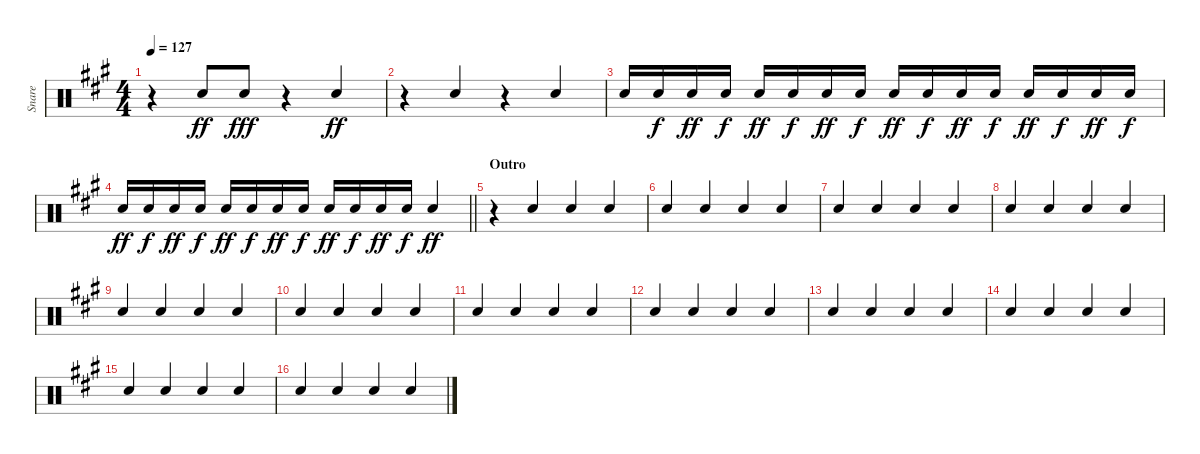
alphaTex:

\track ("Snare" "Snare") {instrument percussion}
\staff {score}
\articulation defaults
\ts (4 4)
\tempo 127
\clef neutral
\ks a
r.4{dy ff} "Electric Snare (hit)".8{volume 13 beam Up} "Electric Snare (hit)".8{dy fff beam Up} r.4 "Electric Snare (hit)".4{dy ff beam Up} |
r.4{beam merge} "Electric Snare (hit)".4{beam Up} r.4{beam merge} "Electric Snare (hit)".4{beam Up} |
"Electric Snare (hit)".16{beam Up} "Electric Snare (hit)".16{dy f beam Up} "Electric Snare (hit)".16{dy ff beam Up} "Electric Snare (hit)".16{dy f beam Up} "Electric Snare (hit)".16{dy ff beam Up} "Electric Snare (hit)".16{dy f beam Up} "Electric Snare (hit)".16{dy ff beam Up} "Electric Snare (hit)".16{dy f beam Up} "Electric Snare (hit)".16{dy ff beam Up} "Electric Snare (hit)".16{dy f beam Up} "Electric Snare (hit)".16{dy ff beam Up} "Electric Snare (hit)".16{dy f beam Up} "Electric Snare (hit)".16{dy ff beam Up} "Electric Snare (hit)".16{dy f beam Up} "Electric Snare (hit)".16{dy ff beam Up} "Electric Snare (hit)".16{dy f beam Up} |
\barLineRight lightlight "Electric Snare (hit)".16{dy ff beam Up} "Electric Snare (hit)".16{dy f beam Up} "Electric Snare (hit)".16{dy ff beam Up} "Electric Snare (hit)".16{dy f beam Up} "Electric Snare (hit)".16{dy ff beam Up} "Electric Snare (hit)".16{dy f beam Up} "Electric Snare (hit)".16{dy ff beam Up} "Electric Snare (hit)".16{dy f beam Up} "Electric Snare (hit)".16{dy ff beam Up} "Electric Snare (hit)".16{dy f beam Up} "Electric Snare (hit)".16{dy ff beam Up} "Electric Snare (hit)".16{dy f beam Up} "Electric Snare (hit)".4{dy ff beam Up}
|
\section ("" "Outro")
r.4 "Electric Snare (hit)".4{beam Up} "Electric Snare (hit)".4{beam Up} "Electric Snare (hit)".4{beam Up} |
"Electric Snare (hit)".4{beam Up} "Electric Snare (hit)".4{beam Up} "Electric Snare (hit)".4{beam Up} "Electric Snare (hit)".4{beam Up} |
"Electric Snare (hit)".4{beam Up} "Electric Snare (hit)".4{beam Up} "Electric Snare (hit)".4{beam Up} "Electric Snare (hit)".4{beam Up} |
"Electric Snare (hit)".4{beam Up} "Electric Snare (hit)".4{beam Up} "Electric Snare (hit)".4{beam Up} "Electric Snare (hit)".4{beam Up} |
"Electric Snare (hit)".4{beam Up} "Electric Snare (hit)".4{beam Up} "Electric Snare (hit)".4{beam Up} "Electric Snare (hit)".4{beam Up} |
"Electric Snare (hit)".4{beam Up} "Electric Snare (hit)".4{beam Up} "Electric Snare (hit)".4{beam Up} "Electric Snare (hit)".4{beam Up} |
"Electric Snare (hit)".4{beam Up} "Electric Snare (hit)".4{beam Up} "Electric Snare (hit)".4{beam Up} "Electric Snare (hit)".4{beam Up} |
"Electric Snare (hit)".4{beam Up} "Electric Snare (hit)".4{beam Up} "Electric Snare (hit)".4{beam Up} "Electric Snare (hit)".4{beam Up} |
"Electric Snare (hit)".4{beam Up} "Electric Snare (hit)".4{beam Up} "Electric Snare (hit)".4{beam Up} "Electric Snare (hit)".4{beam Up} |
"Electric Snare (hit)".4{beam Up} "Electric Snare (hit)".4{beam Up} "Electric Snare (hit)".4{beam Up} "Electric Snare (hit)".4{beam Up} |
"Electric Snare (hit)".4{beam Up} "Electric Snare (hit)".4{beam Up} "Electric Snare (hit)".4{beam Up} "Electric Snare (hit)".4{beam Up} |
"Electric Snare (hit)".4{beam Up} "Electric Snare (hit)".4{beam Up} "Electric Snare (hit)".4{beam Up} "Electric Snare (hit)".4{beam Up}
